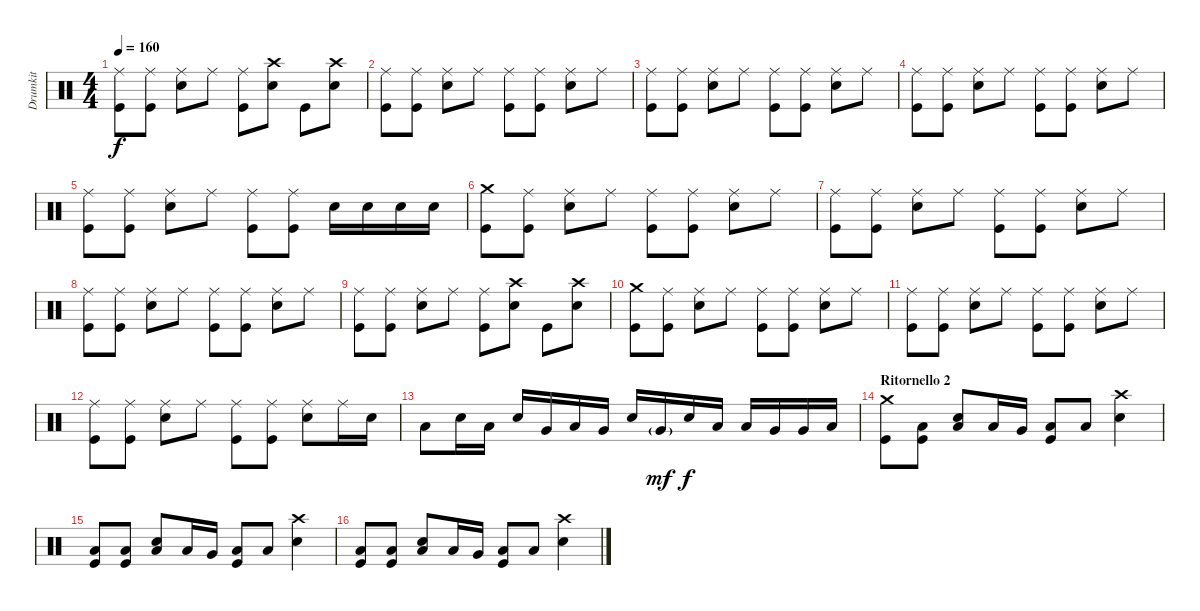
\track ("Drumkit" "Drumkit") {instrument percussion}
\staff {score}
\articulation defaults
\ts (4 4)
\tempo 160
\clef neutral
\ks c
("Ride (middle)" "Kick (hit)").8{dy f} ("Ride (middle)" "Kick (hit)").8 ("Ride (middle)" "Snare (hit) 2").8 "Ride (middle)".8 ("Ride (middle)" "Kick (hit)").8 ("Crash high (hit)" "Snare (hit) 2").8 "Kick (hit)".8 ("Crash high (hit)" "Snare (hit) 2").8 |
("Ride (middle)" "Kick (hit)").8 ("Ride (middle)" "Kick (hit)").8 ("Ride (middle)" "Snare (hit) 2").8 "Ride (middle)".8 ("Ride (middle)" "Kick (hit)").8 ("Ride (middle)" "Kick (hit)").8 ("Ride (middle)" "Snare (hit) 2").8 "Ride (middle)".8 |
("Ride (middle)" "Kick (hit)").8 ("Ride (middle)" "Kick (hit)").8 ("Ride (middle)" "Snare (hit) 2").8 "Ride (middle)".8 ("Ride (middle)" "Kick (hit)").8 ("Ride (middle)" "Kick (hit)").8 ("Ride (middle)" "Snare (hit) 2").8 "Ride (middle)".8 |
("Ride (middle)" "Kick (hit)").8 ("Ride (middle)" "Kick (hit)").8 ("Ride (middle)" "Snare (hit) 2").8 "Ride (middle)".8 ("Ride (middle)" "Kick (hit)").8 ("Ride (middle)" "Kick (hit)").8 ("Ride (middle)" "Snare (hit) 2").8 "Ride (middle)".8 |
("Ride (middle)" "Kick (hit)").8 ("Ride (middle)" "Kick (hit)").8 ("Ride (middle)" "Snare (hit) 2").8 "Ride (middle)".8 ("Ride (middle)" "Kick (hit)").8 ("Ride (middle)" "Kick (hit)").8 "Snare (hit) 2".16 "Snare (hit) 2".16 "Snare (hit) 2".16 "Snare (hit) 2".16 |
("Crash medium (hit)" "Kick (hit)").8 ("Ride (middle)" "Kick (hit)").8 ("Ride (middle)" "Snare (hit) 2").8 "Ride (middle)".8 ("Ride (middle)" "Kick (hit)").8 ("Ride (middle)" "Kick (hit)").8 ("Ride (middle)" "Snare (hit) 2").8 "Ride (middle)".8 |
("Ride (middle)" "Kick (hit)").8 ("Ride (middle)" "Kick (hit)").8 ("Ride (middle)" "Snare (hit) 2").8 "Ride (middle)".8 ("Ride (middle)" "Kick (hit)").8 ("Ride (middle)" "Kick (hit)").8 ("Ride (middle)" "Snare (hit) 2").8 "Ride (middle)".8 |
("Ride (middle)" "Kick (hit)").8 ("Ride (middle)" "Kick (hit)").8 ("Ride (middle)" "Snare (hit) 2").8 "Ride (middle)".8 ("Ride (middle)" "Kick (hit)").8 ("Ride (middle)" "Kick (hit)").8 ("Ride (middle)" "Snare (hit) 2").8 "Ride (middle)".8 |
("Ride (middle)" "Kick (hit)").8 ("Ride (middle)" "Kick (hit)").8 ("Ride (middle)" "Snare (hit) 2").8 "Ride (middle)".8 ("Ride (middle)" "Kick (hit)").8 ("Crash high (hit)" "Snare (hit) 2").8 "Kick (hit)".8 ("Crash high (hit)" "Snare (hit) 2").8 |
("Crash medium (hit)" "Kick (hit)").8 ("Ride (middle)" "Kick (hit)").8 ("Ride (middle)" "Snare (hit) 2").8 "Ride (middle)".8 ("Ride (middle)" "Kick (hit)").8 ("Ride (middle)" "Kick (hit)").8 ("Ride (middle)" "Snare (hit) 2").8 "Ride (middle)".8 |
("Ride (middle)" "Kick (hit)").8 ("Ride (middle)" "Kick (hit)").8 ("Ride (middle)" "Snare (hit) 2").8 "Ride (middle)".8 ("Ride (middle)" "Kick (hit)").8 ("Ride (middle)" "Kick (hit)").8 ("Ride (middle)" "Snare (hit) 2").8 "Ride (middle)".8 |
("Ride (middle)" "Kick (hit)").8 ("Ride (middle)" "Kick (hit)").8 ("Ride (middle)" "Snare (hit) 2").8 "Ride (middle)".8 ("Ride (middle)" "Kick (hit)").8 ("Ride (middle)" "Kick (hit)").8 ("Ride (middle)" "Snare (hit) 2").8 "Ride (middle)".16 "Snare (hit) 2".16 |
"Low Tom (hit)".8 "Snare (hit) 2".16 "Low Tom (hit)".16 "Snare (hit) 2".16 "Very Low Tom (hit)".16 "Low Tom (hit)".16 "Very Low Tom (hit)".16 "Snare (hit) 2".16 "Very Low Tom (hit)"{g}.16{dy mf} "Snare (hit) 2".16{dy f} "Low Tom (hit)".16 "Low Tom (hit)".16 "Very Low Tom (hit)".16 "Very Low Tom (hit)".16 "Low Floor Tom (hit)".16 |
\section ("" "Ritornello 2")
("Crash medium (hit)" "Kick (hit)").8 ("Low Floor Tom (hit)" "Kick (hit)").8 ("Low Floor Tom (hit)" "Snare (hit) 2").8 "Low Tom (hit)".16 "Very Low Tom (hit)".16 ("Low Floor Tom (hit)" "Kick (hit)").8 "Low Floor Tom (hit)".8 ("Crash high (hit)" "Snare (hit) 2").4 |
("Low Floor Tom (hit)" "Kick (hit)").8 ("Low Floor Tom (hit)" "Kick (hit)").8 ("Low Floor Tom (hit)" "Snare (hit) 2").8 "Low Tom (hit)".16 "Very Low Tom (hit)".16 ("Low Floor Tom (hit)" "Kick (hit)").8 "Low Floor Tom (hit)".8 ("Crash high (hit)" "Snare (hit) 2").4 |
("Low Floor Tom (hit)" "Kick (hit)").8 ("Low Floor Tom (hit)" "Kick (hit)").8 ("Low Floor Tom (hit)" "Snare (hit) 2").8 "Low Tom (hit)".16 "Very Low Tom (hit)".16 ("Low Floor Tom (hit)" "Kick (hit)").8 "Low Floor Tom (hit)".8 ("Crash high (hit)" "Snare (hit) 2").4
